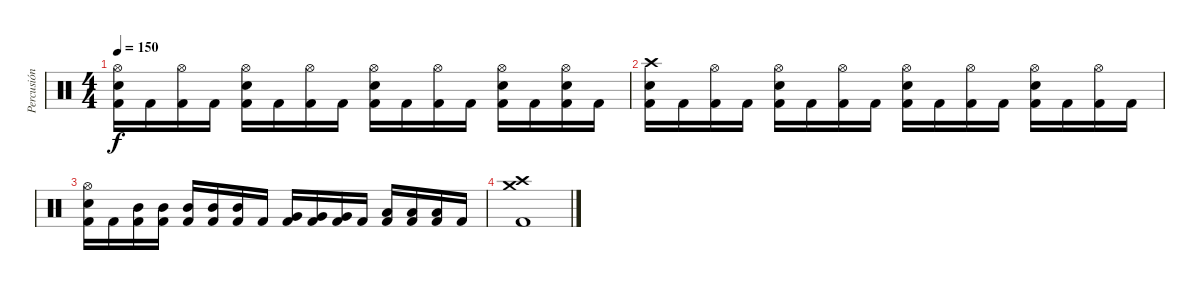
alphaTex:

\track ("Percusión" "Percusión") {instrument percussion}
\staff {score}
\articulation defaults
\ts (4 4)
\tempo 150
\clef neutral
\ks c
("Hi-Hat (open)" "Snare (hit) 2" "Kick (hit) 2").16{dy f} "Kick (hit) 2".16 ("Hi-Hat (open)" "Kick (hit) 2").16 "Kick (hit) 2".16 ("Hi-Hat (open)" "Snare (hit) 2" "Kick (hit) 2").16 "Kick (hit) 2".16 ("Hi-Hat (open)" "Kick (hit) 2").16 "Kick (hit) 2".16 ("Hi-Hat (open)" "Snare (hit) 2" "Kick (hit) 2").16 "Kick (hit) 2".16 ("Hi-Hat (open)" "Kick (hit) 2").16 "Kick (hit) 2".16 ("Hi-Hat (open)" "Snare (hit) 2" "Kick (hit) 2").16 "Kick (hit) 2".16 ("Hi-Hat (open)" "Snare (hit) 2" "Kick (hit) 2").16 "Kick (hit) 2".16 |
("Crash high (hit)" "Snare (hit) 2" "Kick (hit) 2").16 "Kick (hit) 2".16 ("Hi-Hat (open)" "Kick (hit) 2").16 "Kick (hit) 2".16 ("Hi-Hat (open)" "Snare (hit) 2" "Kick (hit) 2").16 "Kick (hit) 2".16 ("Hi-Hat (open)" "Kick (hit) 2").16 "Kick (hit) 2".16 ("Hi-Hat (open)" "Snare (hit) 2" "Kick (hit) 2").16 "Kick (hit) 2".16 ("Hi-Hat (open)" "Kick (hit) 2").16 "Kick (hit) 2".16 ("Hi-Hat (open)" "Snare (hit) 2" "Kick (hit) 2").16 "Kick (hit) 2".16 ("Hi-Hat (open)" "Kick (hit) 2").16 "Kick (hit) 2".16 |
("Hi-Hat (open)" "Snare (hit) 2" "Kick (hit) 2").16 "Kick (hit) 2".16 ("Mid Tom (hit)" "Kick (hit) 2").16 ("Mid Tom (hit)" "Kick (hit) 2").16 ("Mid Tom (hit)" "Kick (hit) 2").16 ("Mid Tom (hit)" "Kick (hit) 2").16 ("Mid Tom (hit)" "Kick (hit) 2").16 "Kick (hit) 2".16 ("Very Low Tom (hit)" "Kick (hit) 2").16 ("Very Low Tom (hit)" "Kick (hit) 2").16 ("Very Low Tom (hit)" "Kick (hit) 2").16 "Kick (hit) 2".16 ("Low Floor Tom (hit)" "Kick (hit) 2").16 ("Low Floor Tom (hit)" "Kick (hit) 2").16 ("Low Floor Tom (hit)" "Kick (hit) 2").16 "Kick (hit) 2".16 |
("Crash medium (hit)" "Crash high (hit)" "Kick (hit) 2").1
